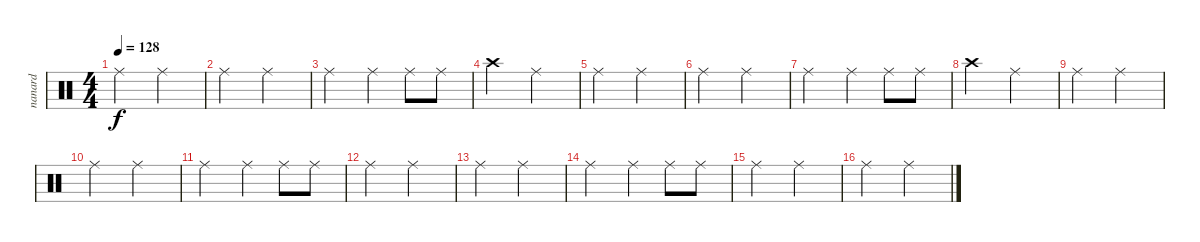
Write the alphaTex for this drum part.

\track ("nanard" "nanard") {instrument percussion}
\staff {score}
\articulation defaults
\ts (4 4)
\tempo 128
\clef neutral
\ks c "Ride (middle)".2{dy f} "Ride (middle)".2
|
"Ride (middle)".2 "Ride (middle)".2 |
"Ride (middle)".2 "Ride (middle)".4 "Ride (middle)".8 "Ride (middle)".8 |
"Crash high (hit)".2 "Ride (middle)".2 |
"Ride (middle)".2 "Ride (middle)".2 |
"Ride (middle)".2 "Ride (middle)".2 |
"Ride (middle)".2 "Ride (middle)".4 "Ride (middle)".8 "Ride (middle)".8 |
"Crash high (hit)".2 "Ride (middle)".2 |
"Ride (middle)".2 "Ride (middle)".2 |
"Ride (middle)".2 "Ride (middle)".2 |
"Ride (middle)".2 "Ride (middle)".4 "Ride (middle)".8 "Ride (middle)".8 |
"Ride (middle)".2 "Ride (middle)".2 |
"Ride (middle)".2 "Ride (middle)".2 |
"Ride (middle)".2 "Ride (middle)".4 "Ride (middle)".8 "Ride (middle)".8 |
"Ride (middle)".2 "Ride (middle)".2 |
"Ride (middle)".2 "Ride (middle)".2
